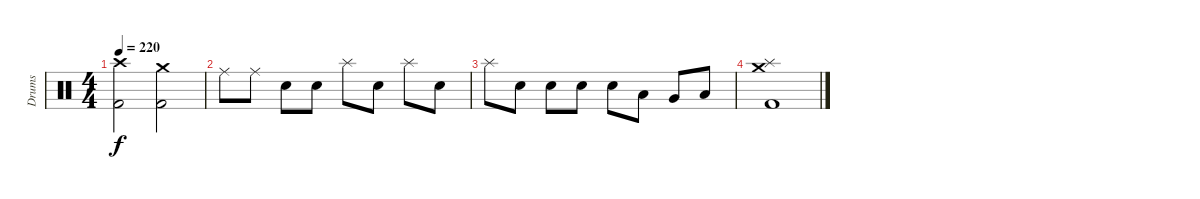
\track ("Drums" "Drums") {instrument percussion}
\staff {score}
\articulation defaults
\ts (4 4)
\tempo 220
\clef neutral
\ks c
("Crash high (hit)" "Kick (hit) 2").2{dy f} ("Crash medium (hit)" "Kick (hit) 2").2 |
"Ride (middle)".8 "Ride (middle)".8 "Snare (hit) 2".8 "Snare (hit) 2".8 "Splash (hit)".8 "Snare (hit) 2".8 "Splash (hit)".8 "Snare (hit) 2".8 |
"Splash (hit)".8 "Snare (hit) 2".8 "Snare (hit) 2".8 "Snare (hit) 2".8 "Snare (hit) 2".8 "Low Tom (hit)".8 "Very Low Tom (hit)".8 "Low Floor Tom (hit)".8 |
("Crash medium (hit)" "Splash (hit)" "Kick (hit) 2").1
